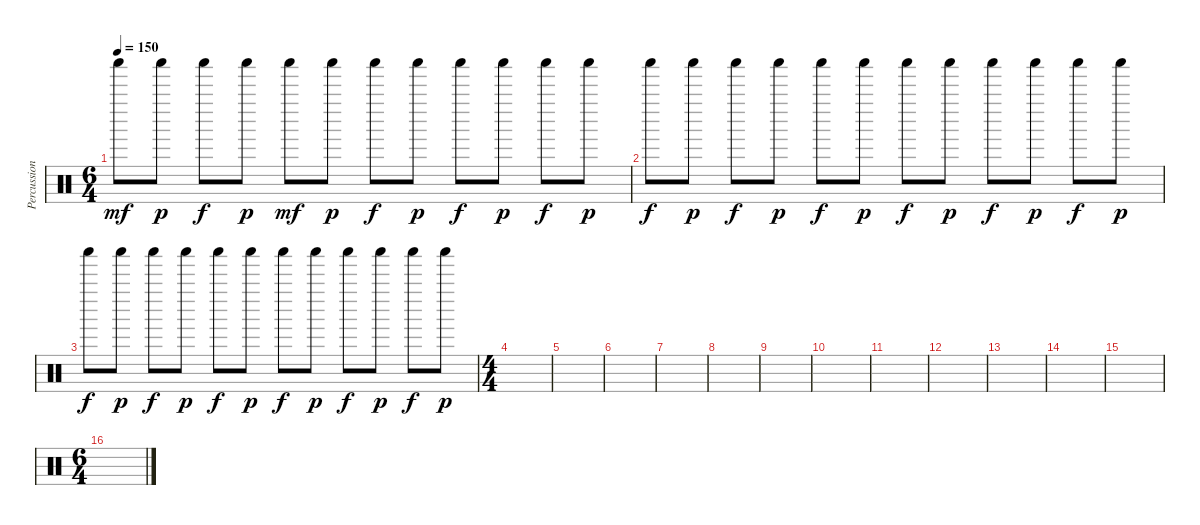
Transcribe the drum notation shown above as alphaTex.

\track ("Percussion" "Percussion") {instrument percussion}
\staff {score}
\articulation defaults
\ts (6 4)
\tempo 150
\clef neutral
\ks c "Shaker (hit)".8{dy mf} "Shaker (hit)".8{dy p} "Shaker (hit)".8{dy f} "Shaker (hit)".8{dy p} "Shaker (hit)".8{dy mf} "Shaker (hit)".8{dy p} "Shaker (hit)".8{dy f} "Shaker (hit)".8{dy p} "Shaker (hit)".8{dy f} "Shaker (hit)".8{dy p} "Shaker (hit)".8{dy f} "Shaker (hit)".8{dy p}
|
"Shaker (hit)".8{dy f} "Shaker (hit)".8{dy p} "Shaker (hit)".8{dy f} "Shaker (hit)".8{dy p} "Shaker (hit)".8{dy f} "Shaker (hit)".8{dy p} "Shaker (hit)".8{dy f} "Shaker (hit)".8{dy p} "Shaker (hit)".8{dy f} "Shaker (hit)".8{dy p} "Shaker (hit)".8{dy f} "Shaker (hit)".8{dy p} |
"Shaker (hit)".8{dy f} "Shaker (hit)".8{dy p} "Shaker (hit)".8{dy f} "Shaker (hit)".8{dy p} "Shaker (hit)".8{dy f} "Shaker (hit)".8{dy p} "Shaker (hit)".8{dy f} "Shaker (hit)".8{dy p} "Shaker (hit)".8{dy f} "Shaker (hit)".8{dy p} "Shaker (hit)".8{dy f} "Shaker (hit)".8{dy p} |
\ts (4 4)
|
|
|
|
|
|
|
|
|
|
|
|
\ts (6 4)
